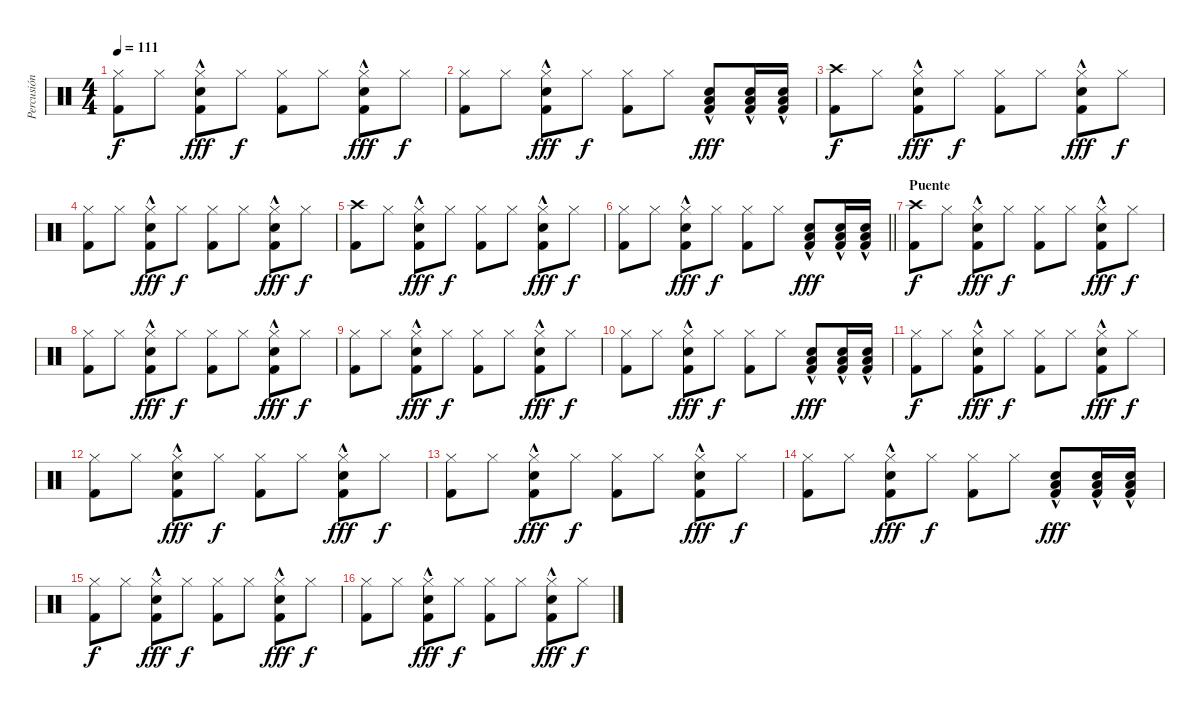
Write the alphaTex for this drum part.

\track ("Percusión" "Percusión") {instrument percussion}
\staff {score}
\articulation defaults
\ts (4 4)
\tempo 111
\clef neutral
\ks c
("Hi-Hat (closed)" "Kick (hit) 2").8{dy f} "Hi-Hat (closed)".8 ("Electric Snare (hit)"{hac} "Hi-Hat (closed)"{hac} "Kick (hit) 2"{hac}).8{dy fff} "Hi-Hat (closed)".8{dy f} ("Hi-Hat (closed)" "Kick (hit) 2").8 "Hi-Hat (closed)".8 ("Electric Snare (hit)"{hac} "Hi-Hat (closed)"{hac} "Kick (hit) 2"{hac}).8{dy fff} "Hi-Hat (closed)".8{dy f} |
("Hi-Hat (closed)" "Kick (hit) 2").8 "Hi-Hat (closed)".8 ("Electric Snare (hit)"{hac} "Hi-Hat (closed)"{hac} "Kick (hit) 2"{hac}).8{dy fff} "Hi-Hat (closed)".8{dy f} ("Hi-Hat (closed)" "Kick (hit) 2").8 "Hi-Hat (closed)".8 ("Snare (hit) 2"{hac} "Low Floor Tom (hit)"{hac} "Kick (hit) 2"{hac}).8{dy fff} ("Snare (hit) 2"{hac} "Low Floor Tom (hit)"{hac} "Kick (hit) 2"{hac}).16 ("Snare (hit) 2"{hac} "Low Floor Tom (hit)"{hac} "Kick (hit) 2"{hac}).16 |
("Crash high (hit)" "Kick (hit) 2").8{dy f} "Hi-Hat (closed)".8 ("Electric Snare (hit)"{hac} "Hi-Hat (closed)"{hac} "Kick (hit) 2"{hac}).8{dy fff} "Hi-Hat (closed)".8{dy f} ("Hi-Hat (closed)" "Kick (hit) 2").8 "Hi-Hat (closed)".8 ("Electric Snare (hit)"{hac} "Hi-Hat (closed)"{hac} "Kick (hit) 2"{hac}).8{dy fff} "Hi-Hat (closed)".8{dy f} |
("Hi-Hat (closed)" "Kick (hit) 2").8 "Hi-Hat (closed)".8 ("Electric Snare (hit)"{hac} "Hi-Hat (closed)"{hac} "Kick (hit) 2"{hac}).8{dy fff} "Hi-Hat (closed)".8{dy f} ("Hi-Hat (closed)" "Kick (hit) 2").8 "Hi-Hat (closed)".8 ("Electric Snare (hit)"{hac} "Hi-Hat (closed)"{hac} "Kick (hit) 2"{hac}).8{dy fff} "Hi-Hat (closed)".8{dy f} |
("Crash high (hit)" "Kick (hit) 2").8 "Hi-Hat (closed)".8 ("Electric Snare (hit)"{hac} "Hi-Hat (closed)"{hac} "Kick (hit) 2"{hac}).8{dy fff} "Hi-Hat (closed)".8{dy f} ("Hi-Hat (closed)" "Kick (hit) 2").8 "Hi-Hat (closed)".8 ("Electric Snare (hit)"{hac} "Hi-Hat (closed)"{hac} "Kick (hit) 2"{hac}).8{dy fff} "Hi-Hat (closed)".8{dy f} |
\barLineRight lightlight
("Hi-Hat (closed)" "Kick (hit) 2").8 "Hi-Hat (closed)".8 ("Electric Snare (hit)"{hac} "Hi-Hat (closed)"{hac} "Kick (hit) 2"{hac}).8{dy fff} "Hi-Hat (closed)".8{dy f} ("Hi-Hat (closed)" "Kick (hit) 2").8 "Hi-Hat (closed)".8 ("Snare (hit) 2"{hac} "Low Floor Tom (hit)"{hac} "Kick (hit) 2"{hac}).8{dy fff} ("Snare (hit) 2"{hac} "Low Floor Tom (hit)"{hac} "Kick (hit) 2"{hac}).16 ("Snare (hit) 2"{hac} "Low Floor Tom (hit)"{hac} "Kick (hit) 2"{hac}).16 |
\section ("" "Puente")
("Crash high (hit)" "Kick (hit) 2").8{dy f} "Hi-Hat (closed)".8 ("Electric Snare (hit)"{hac} "Hi-Hat (closed)"{hac} "Kick (hit) 2"{hac}).8{dy fff} "Hi-Hat (closed)".8{dy f} ("Hi-Hat (closed)" "Kick (hit) 2").8 "Hi-Hat (closed)".8 ("Electric Snare (hit)"{hac} "Hi-Hat (closed)"{hac} "Kick (hit) 2"{hac}).8{dy fff} "Hi-Hat (closed)".8{dy f} |
("Hi-Hat (closed)" "Kick (hit) 2").8 "Hi-Hat (closed)".8 ("Electric Snare (hit)"{hac} "Hi-Hat (closed)"{hac} "Kick (hit) 2"{hac}).8{dy fff} "Hi-Hat (closed)".8{dy f} ("Hi-Hat (closed)" "Kick (hit) 2").8 "Hi-Hat (closed)".8 ("Electric Snare (hit)"{hac} "Hi-Hat (closed)"{hac} "Kick (hit) 2"{hac}).8{dy fff} "Hi-Hat (closed)".8{dy f} |
("Hi-Hat (closed)" "Kick (hit) 2").8 "Hi-Hat (closed)".8 ("Electric Snare (hit)"{hac} "Hi-Hat (closed)"{hac} "Kick (hit) 2"{hac}).8{dy fff} "Hi-Hat (closed)".8{dy f} ("Hi-Hat (closed)" "Kick (hit) 2").8 "Hi-Hat (closed)".8 ("Electric Snare (hit)"{hac} "Hi-Hat (closed)"{hac} "Kick (hit) 2"{hac}).8{dy fff} "Hi-Hat (closed)".8{dy f} |
("Hi-Hat (closed)" "Kick (hit) 2").8 "Hi-Hat (closed)".8 ("Electric Snare (hit)"{hac} "Hi-Hat (closed)"{hac} "Kick (hit) 2"{hac}).8{dy fff} "Hi-Hat (closed)".8{dy f} ("Hi-Hat (closed)" "Kick (hit) 2").8 "Hi-Hat (closed)".8 ("Snare (hit) 2"{hac} "Low Floor Tom (hit)"{hac} "Kick (hit) 2"{hac}).8{dy fff} ("Snare (hit) 2"{hac} "Low Floor Tom (hit)"{hac} "Kick (hit) 2"{hac}).16 ("Snare (hit) 2"{hac} "Low Floor Tom (hit)"{hac} "Kick (hit) 2"{hac}).16 |
("Hi-Hat (closed)" "Kick (hit) 2").8{dy f} "Hi-Hat (closed)".8 ("Electric Snare (hit)"{hac} "Hi-Hat (closed)"{hac} "Kick (hit) 2"{hac}).8{dy fff} "Hi-Hat (closed)".8{dy f} ("Hi-Hat (closed)" "Kick (hit) 2").8 "Hi-Hat (closed)".8 ("Electric Snare (hit)"{hac} "Hi-Hat (closed)"{hac} "Kick (hit) 2"{hac}).8{dy fff} "Hi-Hat (closed)".8{dy f} |
("Hi-Hat (closed)" "Kick (hit) 2").8 "Hi-Hat (closed)".8 ("Electric Snare (hit)"{hac} "Hi-Hat (closed)"{hac} "Kick (hit) 2"{hac}).8{dy fff} "Hi-Hat (closed)".8{dy f} ("Hi-Hat (closed)" "Kick (hit) 2").8 "Hi-Hat (closed)".8 ("Electric Snare (hit)"{hac} "Hi-Hat (closed)"{hac} "Kick (hit) 2"{hac}).8{dy fff} "Hi-Hat (closed)".8{dy f} |
("Hi-Hat (closed)" "Kick (hit) 2").8 "Hi-Hat (closed)".8 ("Electric Snare (hit)"{hac} "Hi-Hat (closed)"{hac} "Kick (hit) 2"{hac}).8{dy fff} "Hi-Hat (closed)".8{dy f} ("Hi-Hat (closed)" "Kick (hit) 2").8 "Hi-Hat (closed)".8 ("Electric Snare (hit)"{hac} "Hi-Hat (closed)"{hac} "Kick (hit) 2"{hac}).8{dy fff} "Hi-Hat (closed)".8{dy f} |
("Hi-Hat (closed)" "Kick (hit) 2").8 "Hi-Hat (closed)".8 ("Electric Snare (hit)"{hac} "Hi-Hat (closed)"{hac} "Kick (hit) 2"{hac}).8{dy fff} "Hi-Hat (closed)".8{dy f} ("Hi-Hat (closed)" "Kick (hit) 2").8 "Hi-Hat (closed)".8 ("Snare (hit) 2"{hac} "Low Floor Tom (hit)"{hac} "Kick (hit) 2"{hac}).8{dy fff} ("Snare (hit) 2"{hac} "Low Floor Tom (hit)"{hac} "Kick (hit) 2"{hac}).16 ("Snare (hit) 2"{hac} "Low Floor Tom (hit)"{hac} "Kick (hit) 2"{hac}).16 |
("Hi-Hat (closed)" "Kick (hit) 2").8{dy f} "Hi-Hat (closed)".8 ("Electric Snare (hit)"{hac} "Hi-Hat (closed)"{hac} "Kick (hit) 2"{hac}).8{dy fff} "Hi-Hat (closed)".8{dy f} ("Hi-Hat (closed)" "Kick (hit) 2").8 "Hi-Hat (closed)".8 ("Electric Snare (hit)"{hac} "Hi-Hat (closed)"{hac} "Kick (hit) 2"{hac}).8{dy fff} "Hi-Hat (closed)".8{dy f} |
("Hi-Hat (closed)" "Kick (hit) 2").8 "Hi-Hat (closed)".8 ("Electric Snare (hit)"{hac} "Hi-Hat (closed)"{hac} "Kick (hit) 2"{hac}).8{dy fff} "Hi-Hat (closed)".8{dy f} ("Hi-Hat (closed)" "Kick (hit) 2").8 "Hi-Hat (closed)".8 ("Electric Snare (hit)"{hac} "Hi-Hat (closed)"{hac} "Kick (hit) 2"{hac}).8{dy fff} "Hi-Hat (closed)".8{dy f}
